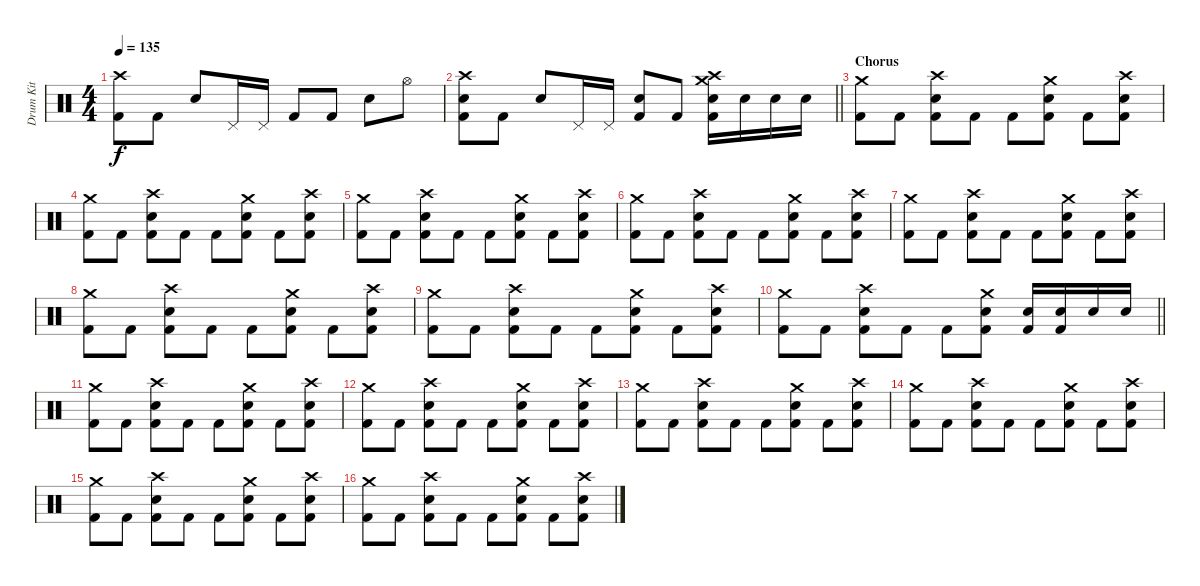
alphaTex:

\track ("Drum Kit" "Drum Kit") {instrument percussion}
\staff {score}
\articulation defaults
\ts (4 4)
\tempo 135
\clef neutral
\ks c
("Crash high (hit)" "Kick (hit) 2").8{dy f} "Kick (hit) 2".8 "Electric Snare (hit)".8 "Pedal Hi-Hat (hit)".16 "Pedal Hi-Hat (hit)".16 "Kick (hit) 2".8 "Kick (hit) 2".8 "Electric Snare (hit)".8 "Hi-Hat (open)".8 |
\barLineRight lightlight
("Crash high (hit)" "Electric Snare (hit)" "Kick (hit) 2").8 "Kick (hit) 2".8 "Electric Snare (hit)".8 "Pedal Hi-Hat (hit)".16 "Pedal Hi-Hat (hit)".16 ("Electric Snare (hit)" "Kick (hit) 2").8 "Kick (hit) 2".8 ("Crash high (hit)" "Crash medium (hit)" "Electric Snare (hit)" "Kick (hit) 2").16 "Electric Snare (hit)".16 "Electric Snare (hit)".16 "Electric Snare (hit)".16 |
\section ("" "Chorus")
("Crash medium (hit)" "Kick (hit) 2").8 "Kick (hit) 2".8 ("Crash high (hit)" "Electric Snare (hit)" "Kick (hit) 2").8 "Kick (hit) 2".8 "Kick (hit) 2".8 ("Crash medium (hit)" "Electric Snare (hit)" "Kick (hit) 2").8 "Kick (hit) 2".8 ("Crash high (hit)" "Electric Snare (hit)" "Kick (hit) 2").8 |
("Crash medium (hit)" "Kick (hit) 2").8 "Kick (hit) 2".8 ("Crash high (hit)" "Electric Snare (hit)" "Kick (hit) 2").8 "Kick (hit) 2".8 "Kick (hit) 2".8 ("Crash medium (hit)" "Electric Snare (hit)" "Kick (hit) 2").8 "Kick (hit) 2".8 ("Crash high (hit)" "Electric Snare (hit)" "Kick (hit) 2").8 |
("Crash medium (hit)" "Kick (hit) 2").8 "Kick (hit) 2".8 ("Crash high (hit)" "Electric Snare (hit)" "Kick (hit) 2").8 "Kick (hit) 2".8 "Kick (hit) 2".8 ("Crash medium (hit)" "Electric Snare (hit)" "Kick (hit) 2").8 "Kick (hit) 2".8 ("Crash high (hit)" "Electric Snare (hit)" "Kick (hit) 2").8 |
("Crash medium (hit)" "Kick (hit) 2").8 "Kick (hit) 2".8 ("Crash high (hit)" "Electric Snare (hit)" "Kick (hit) 2").8 "Kick (hit) 2".8 "Kick (hit) 2".8 ("Crash medium (hit)" "Electric Snare (hit)" "Kick (hit) 2").8 "Kick (hit) 2".8 ("Crash high (hit)" "Electric Snare (hit)" "Kick (hit) 2").8 |
("Crash medium (hit)" "Kick (hit) 2").8 "Kick (hit) 2".8 ("Crash high (hit)" "Electric Snare (hit)" "Kick (hit) 2").8 "Kick (hit) 2".8 "Kick (hit) 2".8 ("Crash medium (hit)" "Electric Snare (hit)" "Kick (hit) 2").8 "Kick (hit) 2".8 ("Crash high (hit)" "Electric Snare (hit)" "Kick (hit) 2").8 |
("Crash medium (hit)" "Kick (hit) 2").8 "Kick (hit) 2".8 ("Crash high (hit)" "Electric Snare (hit)" "Kick (hit) 2").8 "Kick (hit) 2".8 "Kick (hit) 2".8 ("Crash medium (hit)" "Electric Snare (hit)" "Kick (hit) 2").8 "Kick (hit) 2".8 ("Crash high (hit)" "Electric Snare (hit)" "Kick (hit) 2").8 |
("Crash medium (hit)" "Kick (hit) 2").8 "Kick (hit) 2".8 ("Crash high (hit)" "Electric Snare (hit)" "Kick (hit) 2").8 "Kick (hit) 2".8 "Kick (hit) 2".8 ("Crash medium (hit)" "Electric Snare (hit)" "Kick (hit) 2").8 "Kick (hit) 2".8 ("Crash high (hit)" "Electric Snare (hit)" "Kick (hit) 2").8 |
\barLineRight lightlight
("Crash medium (hit)" "Kick (hit) 2").8 "Kick (hit) 2".8 ("Crash high (hit)" "Electric Snare (hit)" "Kick (hit) 2").8 "Kick (hit) 2".8 "Kick (hit) 2".8 ("Crash medium (hit)" "Electric Snare (hit)" "Kick (hit) 2").8 ("Electric Snare (hit)" "Kick (hit) 2").16 ("Electric Snare (hit)" "Kick (hit) 2").16 "Electric Snare (hit)".16 "Electric Snare (hit)".16 |
("Crash medium (hit)" "Kick (hit) 2").8 "Kick (hit) 2".8 ("Crash high (hit)" "Electric Snare (hit)" "Kick (hit) 2").8 "Kick (hit) 2".8 "Kick (hit) 2".8 ("Crash medium (hit)" "Electric Snare (hit)" "Kick (hit) 2").8 "Kick (hit) 2".8 ("Crash high (hit)" "Electric Snare (hit)" "Kick (hit) 2").8 |
("Crash medium (hit)" "Kick (hit) 2").8 "Kick (hit) 2".8 ("Crash high (hit)" "Electric Snare (hit)" "Kick (hit) 2").8 "Kick (hit) 2".8 "Kick (hit) 2".8 ("Crash medium (hit)" "Electric Snare (hit)" "Kick (hit) 2").8 "Kick (hit) 2".8 ("Crash high (hit)" "Electric Snare (hit)" "Kick (hit) 2").8 |
("Crash medium (hit)" "Kick (hit) 2").8 "Kick (hit) 2".8 ("Crash high (hit)" "Electric Snare (hit)" "Kick (hit) 2").8 "Kick (hit) 2".8 "Kick (hit) 2".8 ("Crash medium (hit)" "Electric Snare (hit)" "Kick (hit) 2").8 "Kick (hit) 2".8 ("Crash high (hit)" "Electric Snare (hit)" "Kick (hit) 2").8 |
("Crash medium (hit)" "Kick (hit) 2").8 "Kick (hit) 2".8 ("Crash high (hit)" "Electric Snare (hit)" "Kick (hit) 2").8 "Kick (hit) 2".8 "Kick (hit) 2".8 ("Crash medium (hit)" "Electric Snare (hit)" "Kick (hit) 2").8 "Kick (hit) 2".8 ("Crash high (hit)" "Electric Snare (hit)" "Kick (hit) 2").8 |
("Crash medium (hit)" "Kick (hit) 2").8 "Kick (hit) 2".8 ("Crash high (hit)" "Electric Snare (hit)" "Kick (hit) 2").8 "Kick (hit) 2".8 "Kick (hit) 2".8 ("Crash medium (hit)" "Electric Snare (hit)" "Kick (hit) 2").8 "Kick (hit) 2".8 ("Crash high (hit)" "Electric Snare (hit)" "Kick (hit) 2").8 |
("Crash medium (hit)" "Kick (hit) 2").8 "Kick (hit) 2".8 ("Crash high (hit)" "Electric Snare (hit)" "Kick (hit) 2").8 "Kick (hit) 2".8 "Kick (hit) 2".8 ("Crash medium (hit)" "Electric Snare (hit)" "Kick (hit) 2").8 "Kick (hit) 2".8 ("Crash high (hit)" "Electric Snare (hit)" "Kick (hit) 2").8
